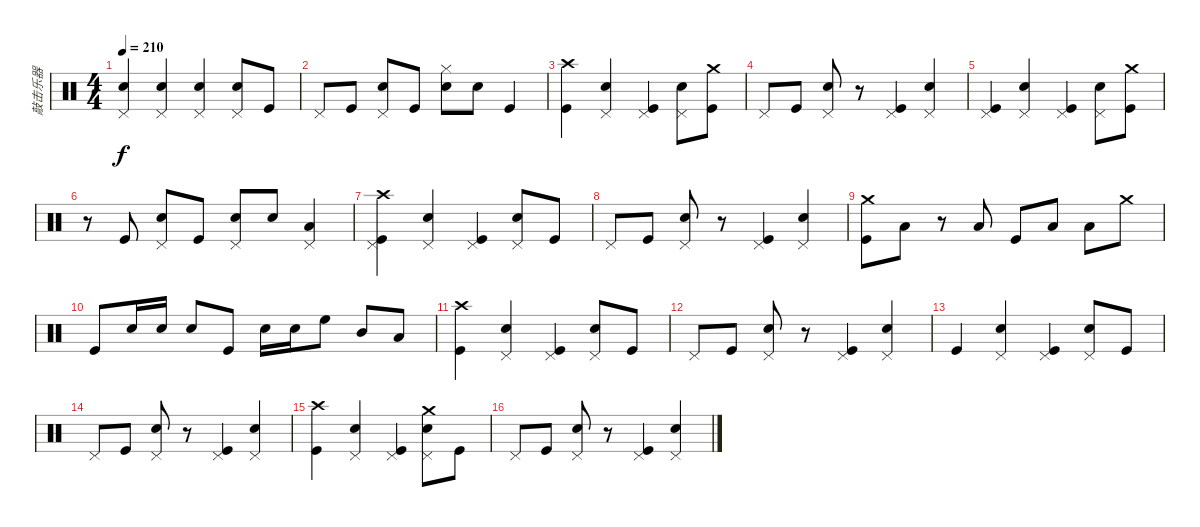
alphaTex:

\track ("敲击乐器" "敲击乐器") {instrument percussion}
\staff {score}
\articulation defaults
\ts (4 4)
\tempo 210
\clef neutral
\ks c
("Snare (hit) 2" "Pedal Hi-Hat (hit)").4{dy f} ("Pedal Hi-Hat (hit)" "Snare (hit) 2").4 ("Pedal Hi-Hat (hit)" "Snare (hit) 2").4 ("Pedal Hi-Hat (hit)" "Snare (hit) 2").8 "Kick (hit)".8 |
"Pedal Hi-Hat (hit)".8 "Kick (hit)".8 ("Pedal Hi-Hat (hit)" "Snare (hit) 2").8 "Kick (hit)".8 ("Snare (hit) 2" "Hi-Hat (closed)").8 "Snare (hit) 2".8 "Kick (hit)".4 |
("Crash high (hit)" "Kick (hit)").4 ("Pedal Hi-Hat (hit)" "Snare (hit) 2").4 ("Pedal Hi-Hat (hit)" "Kick (hit)").4 ("Pedal Hi-Hat (hit)" "Snare (hit) 2").8 ("Crash medium (hit)" "Kick (hit)").8 |
"Pedal Hi-Hat (hit)".8 "Kick (hit)".8 ("Pedal Hi-Hat (hit)" "Snare (hit) 2").8 r.8 ("Kick (hit)" "Pedal Hi-Hat (hit)").4 ("Snare (hit) 2" "Pedal Hi-Hat (hit)").4 |
("Pedal Hi-Hat (hit)" "Kick (hit)").4 ("Pedal Hi-Hat (hit)" "Snare (hit) 2").4 ("Pedal Hi-Hat (hit)" "Kick (hit)").4 ("Pedal Hi-Hat (hit)" "Snare (hit) 2").8 ("Crash medium (hit)" "Kick (hit)").8 |
r.8 "Kick (hit)".8 ("Pedal Hi-Hat (hit)" "Snare (hit) 2").8 "Kick (hit)".8 ("Pedal Hi-Hat (hit)" "Snare (hit) 2").8 "Snare (hit) 2".8 ("Low Floor Tom (hit)" "Pedal Hi-Hat (hit)").4 |
("Crash high (hit)" "Pedal Hi-Hat (hit)" "Kick (hit)").4 ("Pedal Hi-Hat (hit)" "Snare (hit) 2").4 ("Pedal Hi-Hat (hit)" "Kick (hit)").4 ("Pedal Hi-Hat (hit)" "Snare (hit) 2").8 "Kick (hit)".8 |
"Pedal Hi-Hat (hit)".8 "Kick (hit)".8 ("Pedal Hi-Hat (hit)" "Snare (hit) 2").8 r.8 ("Kick (hit)" "Pedal Hi-Hat (hit)").4 ("Snare (hit) 2" "Pedal Hi-Hat (hit)").4 |
("Crash medium (hit)" "Kick (hit)").8 "Low Tom (hit)".8 r.8 "Low Tom (hit)".8 "Kick (hit)".8 "Low Tom (hit)".8 "Low Tom (hit)".8 "Crash medium (hit)".8 |
"Kick (hit)".8 "Snare (hit) 2".16 "Snare (hit) 2".16 "Snare (hit) 2".8 "Kick (hit)".8 "Snare (hit) 2".16 "Snare (hit) 2".16 "High Floor Tom (hit)".8 "Mid Tom (hit)".8 "Low Tom (hit)".8 |
("Crash high (hit)" "Kick (hit)").4 ("Pedal Hi-Hat (hit)" "Snare (hit) 2").4 ("Pedal Hi-Hat (hit)" "Kick (hit)").4 ("Pedal Hi-Hat (hit)" "Snare (hit) 2").8 "Kick (hit)".8 |
"Pedal Hi-Hat (hit)".8 "Kick (hit)".8 ("Pedal Hi-Hat (hit)" "Snare (hit) 2").8 r.8 ("Kick (hit)" "Pedal Hi-Hat (hit)").4 ("Snare (hit) 2" "Pedal Hi-Hat (hit)").4 |
"Kick (hit)".4 ("Pedal Hi-Hat (hit)" "Snare (hit) 2").4 ("Pedal Hi-Hat (hit)" "Kick (hit)").4 ("Pedal Hi-Hat (hit)" "Snare (hit) 2").8 "Kick (hit)".8 |
"Pedal Hi-Hat (hit)".8 "Kick (hit)".8 ("Pedal Hi-Hat (hit)" "Snare (hit) 2").8 r.8 ("Kick (hit)" "Pedal Hi-Hat (hit)").4 ("Snare (hit) 2" "Pedal Hi-Hat (hit)").4 |
("Crash high (hit)" "Kick (hit)").4 ("Pedal Hi-Hat (hit)" "Snare (hit) 2").4 ("Pedal Hi-Hat (hit)" "Kick (hit)").4 ("Crash medium (hit)" "Pedal Hi-Hat (hit)" "Snare (hit) 2").8 "Kick (hit)".8 |
"Pedal Hi-Hat (hit)".8 "Kick (hit)".8 ("Pedal Hi-Hat (hit)" "Snare (hit) 2").8 r.8 ("Kick (hit)" "Pedal Hi-Hat (hit)").4 ("Snare (hit) 2" "Pedal Hi-Hat (hit)").4
